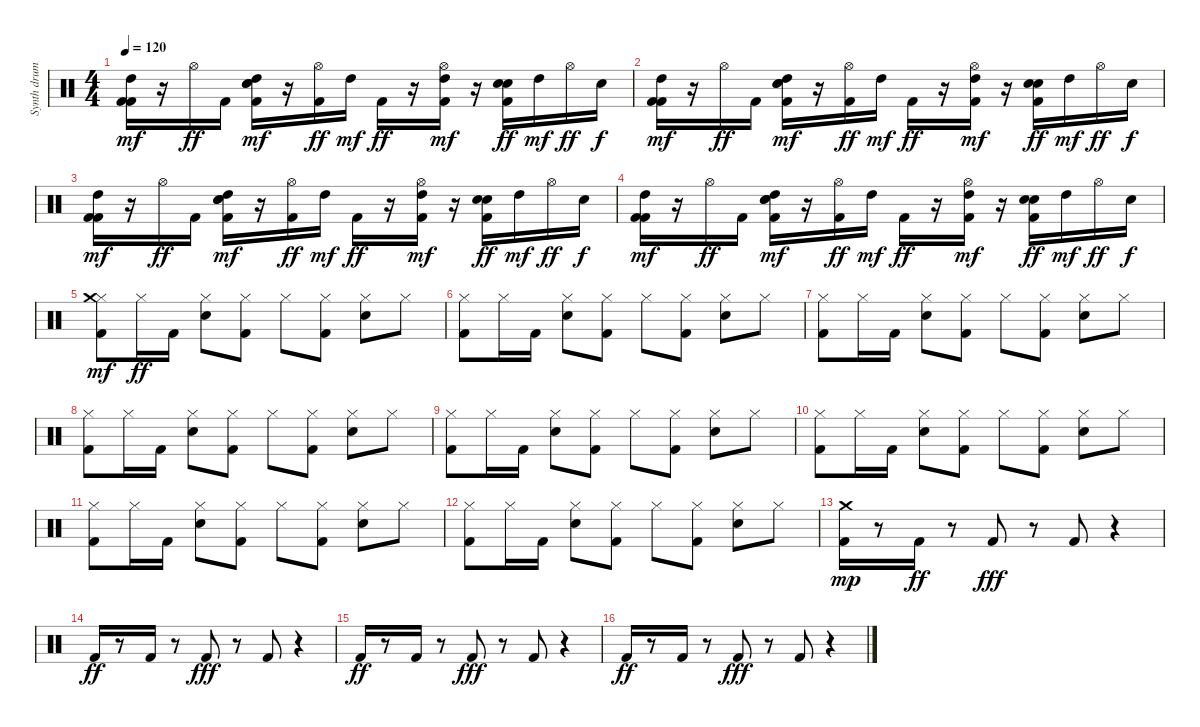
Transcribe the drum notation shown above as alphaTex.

\track ("Synth drums" "Synth drum") {instrument percussion}
\staff {score}
\articulation defaults
\ts (4 4)
\tempo 120
\clef neutral
\ks c
("Kick (hit) 2" "Kick (hit) 2" "High Tom (hit)").16{dy mf} r.16 "Hi-Hat (open)".16{dy ff} "Kick (hit) 2".16 ("Snare (hit) 2" "Kick (hit) 2" "Snare (hit) 2" "High Tom (hit)").16{dy mf} r.16 ("Kick (hit) 2" "Hi-Hat (open)").16{dy ff} "High Tom (hit)".16{dy mf} "Kick (hit) 2".16{dy ff} r.16 ("Kick (hit) 2" "Hi-Hat (open)" "High Tom (hit)").16{dy mf} r.16 ("Snare (hit) 2" "Kick (hit) 2" "Snare (hit) 2").16{dy ff} "High Tom (hit)".16{dy mf} "Hi-Hat (open)".16{dy ff} "Snare (hit) 2".16{dy f} |
("Kick (hit) 2" "Kick (hit) 2" "High Tom (hit)").16{dy mf} r.16 "Hi-Hat (open)".16{dy ff} "Kick (hit) 2".16 ("Snare (hit) 2" "Kick (hit) 2" "Snare (hit) 2" "High Tom (hit)").16{dy mf} r.16 ("Kick (hit) 2" "Hi-Hat (open)").16{dy ff} "High Tom (hit)".16{dy mf} "Kick (hit) 2".16{dy ff} r.16 ("Kick (hit) 2" "Hi-Hat (open)" "High Tom (hit)").16{dy mf} r.16 ("Snare (hit) 2" "Kick (hit) 2" "Snare (hit) 2").16{dy ff} "High Tom (hit)".16{dy mf} "Hi-Hat (open)".16{dy ff} "Snare (hit) 2".16{dy f} |
("Kick (hit) 2" "Kick (hit) 2" "High Tom (hit)").16{dy mf} r.16 "Hi-Hat (open)".16{dy ff} "Kick (hit) 2".16 ("Snare (hit) 2" "Kick (hit) 2" "Snare (hit) 2" "High Tom (hit)").16{dy mf} r.16 ("Kick (hit) 2" "Hi-Hat (open)").16{dy ff} "High Tom (hit)".16{dy mf} "Kick (hit) 2".16{dy ff} r.16 ("Kick (hit) 2" "Hi-Hat (open)" "High Tom (hit)").16{dy mf} r.16 ("Snare (hit) 2" "Kick (hit) 2" "Snare (hit) 2").16{dy ff} "High Tom (hit)".16{dy mf} "Hi-Hat (open)".16{dy ff} "Snare (hit) 2".16{dy f} |
("Kick (hit) 2" "Kick (hit) 2" "High Tom (hit)").16{dy mf} r.16 "Hi-Hat (open)".16{dy ff} "Kick (hit) 2".16 ("Snare (hit) 2" "Kick (hit) 2" "Snare (hit) 2" "High Tom (hit)").16{dy mf} r.16 ("Kick (hit) 2" "Hi-Hat (open)").16{dy ff} "High Tom (hit)".16{dy mf} "Kick (hit) 2".16{dy ff} r.16 ("Kick (hit) 2" "Hi-Hat (open)" "High Tom (hit)").16{dy mf} r.16 ("Snare (hit) 2" "Kick (hit) 2" "Snare (hit) 2").16{dy ff} "High Tom (hit)".16{dy mf} "Hi-Hat (open)".16{dy ff} "Snare (hit) 2".16{dy f} |
("Kick (hit) 2" "Hi-Hat (closed)" "Crash medium (hit)").8{dy mf} "Hi-Hat (closed)".16{dy ff} "Kick (hit) 2".16 ("Snare (hit) 2" "Hi-Hat (closed)").8 ("Kick (hit) 2" "Hi-Hat (closed)").8 "Hi-Hat (closed)".8 ("Kick (hit) 2" "Hi-Hat (closed)").8 ("Snare (hit) 2" "Hi-Hat (closed)").8 "Hi-Hat (closed)".8 |
("Kick (hit) 2" "Hi-Hat (closed)").8 "Hi-Hat (closed)".16 "Kick (hit) 2".16 ("Snare (hit) 2" "Hi-Hat (closed)").8 ("Kick (hit) 2" "Hi-Hat (closed)").8 "Hi-Hat (closed)".8 ("Kick (hit) 2" "Hi-Hat (closed)").8 ("Snare (hit) 2" "Hi-Hat (closed)").8 "Hi-Hat (closed)".8 |
("Kick (hit) 2" "Hi-Hat (closed)").8 "Hi-Hat (closed)".16 "Kick (hit) 2".16 ("Snare (hit) 2" "Hi-Hat (closed)").8 ("Kick (hit) 2" "Hi-Hat (closed)").8 "Hi-Hat (closed)".8 ("Kick (hit) 2" "Hi-Hat (closed)").8 ("Snare (hit) 2" "Hi-Hat (closed)").8 "Hi-Hat (closed)".8 |
("Kick (hit) 2" "Hi-Hat (closed)").8 "Hi-Hat (closed)".16 "Kick (hit) 2".16 ("Snare (hit) 2" "Hi-Hat (closed)").8 ("Kick (hit) 2" "Hi-Hat (closed)").8 "Hi-Hat (closed)".8 ("Kick (hit) 2" "Hi-Hat (closed)").8 ("Snare (hit) 2" "Hi-Hat (closed)").8 "Hi-Hat (closed)".8 |
("Kick (hit) 2" "Hi-Hat (closed)").8 "Hi-Hat (closed)".16 "Kick (hit) 2".16 ("Snare (hit) 2" "Hi-Hat (closed)").8 ("Kick (hit) 2" "Hi-Hat (closed)").8 "Hi-Hat (closed)".8 ("Kick (hit) 2" "Hi-Hat (closed)").8 ("Snare (hit) 2" "Hi-Hat (closed)").8 "Hi-Hat (closed)".8 |
("Kick (hit) 2" "Hi-Hat (closed)").8 "Hi-Hat (closed)".16 "Kick (hit) 2".16 ("Snare (hit) 2" "Hi-Hat (closed)").8 ("Kick (hit) 2" "Hi-Hat (closed)").8 "Hi-Hat (closed)".8 ("Kick (hit) 2" "Hi-Hat (closed)").8 ("Snare (hit) 2" "Hi-Hat (closed)").8 "Hi-Hat (closed)".8 |
("Kick (hit) 2" "Hi-Hat (closed)").8 "Hi-Hat (closed)".16 "Kick (hit) 2".16 ("Snare (hit) 2" "Hi-Hat (closed)").8 ("Kick (hit) 2" "Hi-Hat (closed)").8 "Hi-Hat (closed)".8 ("Kick (hit) 2" "Hi-Hat (closed)").8 ("Snare (hit) 2" "Hi-Hat (closed)").8 "Hi-Hat (closed)".8 |
("Kick (hit) 2" "Hi-Hat (closed)").8 "Hi-Hat (closed)".16 "Kick (hit) 2".16 ("Snare (hit) 2" "Hi-Hat (closed)").8 ("Kick (hit) 2" "Hi-Hat (closed)").8 "Hi-Hat (closed)".8 ("Kick (hit) 2" "Hi-Hat (closed)").8 ("Snare (hit) 2" "Hi-Hat (closed)").8 "Hi-Hat (closed)".8 |
("Kick (hit) 2" "Crash medium (hit)").16{dy mp} r.8 "Kick (hit) 2".16{dy ff} r.8 "Kick (hit) 2".8{dy fff} r.8 "Kick (hit) 2".8 r.4 |
"Kick (hit) 2".16{dy ff} r.8 "Kick (hit) 2".16 r.8 "Kick (hit) 2".8{dy fff} r.8 "Kick (hit) 2".8 r.4 |
"Kick (hit) 2".16{dy ff} r.8 "Kick (hit) 2".16 r.8 "Kick (hit) 2".8{dy fff} r.8 "Kick (hit) 2".8 r.4 |
"Kick (hit) 2".16{dy ff} r.8 "Kick (hit) 2".16 r.8 "Kick (hit) 2".8{dy fff} r.8 "Kick (hit) 2".8 r.4
